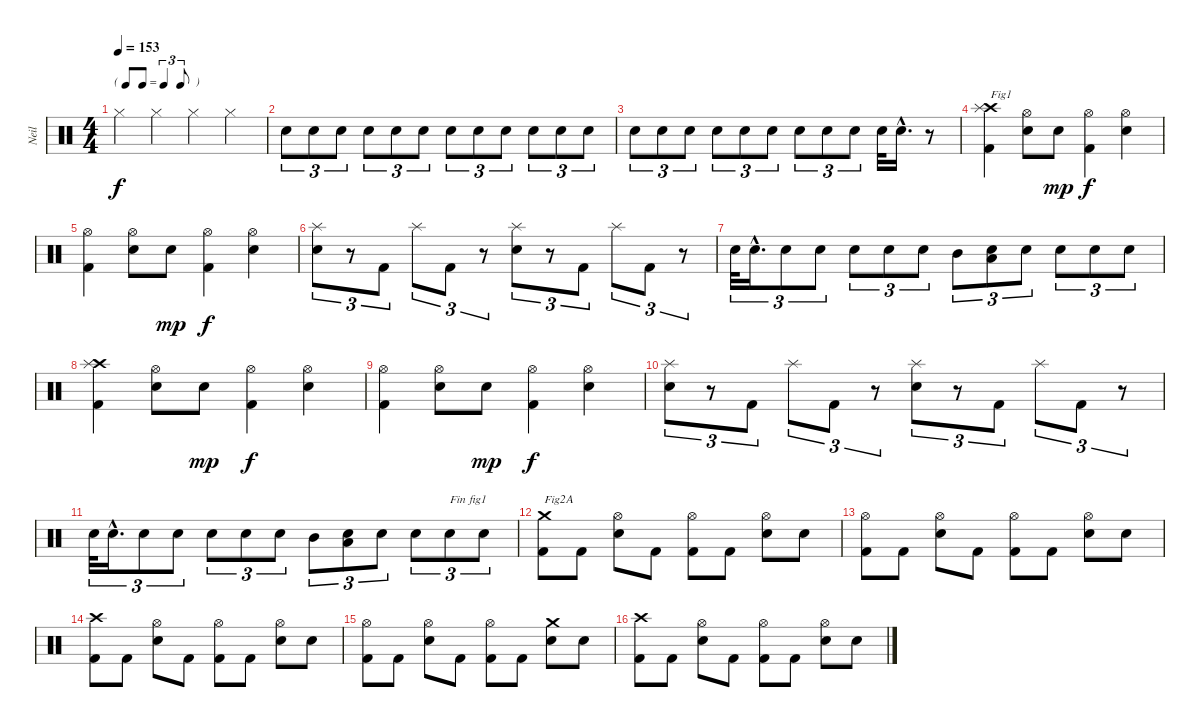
\track ("Neil" "Neil") {instrument percussion}
\staff {score}
\articulation defaults
\ts (4 4)
\tf triplet8th
\tempo 153
\clef neutral
\ks c "Hi-Hat (closed)".4{dy f} "Hi-Hat (closed)".4 "Hi-Hat (closed)".4 "Hi-Hat (closed)".4
|
"Electric Snare (hit)".8{tu (3 2)} "Electric Snare (hit)".8{tu (3 2)} "Electric Snare (hit)".8{tu (3 2)} "Electric Snare (hit)".8{tu (3 2)} "Electric Snare (hit)".8{tu (3 2)} "Electric Snare (hit)".8{tu (3 2)} "Electric Snare (hit)".8{tu (3 2)} "Electric Snare (hit)".8{tu (3 2)} "Electric Snare (hit)".8{tu (3 2)} "Electric Snare (hit)".8{tu (3 2)} "Electric Snare (hit)".8{tu (3 2)} "Electric Snare (hit)".8{tu (3 2)} |
"Electric Snare (hit)".8{tu (3 2)} "Electric Snare (hit)".8{tu (3 2)} "Electric Snare (hit)".8{tu (3 2)} "Electric Snare (hit)".8{tu (3 2)} "Electric Snare (hit)".8{tu (3 2)} "Electric Snare (hit)".8{tu (3 2)} "Electric Snare (hit)".8{tu (3 2)} "Electric Snare (hit)".8{tu (3 2)} "Electric Snare (hit)".8{tu (3 2)} "Electric Snare (hit)".32 "Electric Snare (hit)"{hac}.16{d} r.8 |
("Kick (hit) 2" "Crash high (hit)" "Splash (hit)").4{txt "Fig1"} ("Electric Snare (hit)" "Hi-Hat (open)").8 "Electric Snare (hit)".8{dy mp} ("Kick (hit) 2" "Hi-Hat (open)").4{dy f} ("Electric Snare (hit)" "Hi-Hat (open)").4 |
("Kick (hit) 2" "Hi-Hat (open)").4 ("Electric Snare (hit)" "Hi-Hat (open)").8 "Electric Snare (hit)".8{dy mp} ("Kick (hit) 2" "Hi-Hat (open)").4{dy f} ("Electric Snare (hit)" "Hi-Hat (open)").4 |
("Electric Snare (hit)" "Splash (hit)").8{tu (3 2)} r.8{tu (3 2)} "Kick (hit) 2".8{tu (3 2)} "Splash (hit)".8{tu (3 2)} "Kick (hit) 2".8{tu (3 2)} r.8{tu (3 2)} ("Electric Snare (hit)" "Splash (hit)").8{tu (3 2)} r.8{tu (3 2)} "Kick (hit) 2".8{tu (3 2)} "Splash (hit)".8{tu (3 2)} "Kick (hit) 2".8{tu (3 2)} r.8{tu (3 2)} |
"Electric Snare (hit)".32{tu (3 2)} "Electric Snare (hit)"{hac}.16{d tu (3 2)} "Electric Snare (hit)".8{tu (3 2)} "Electric Snare (hit)".8{tu (3 2)} "Electric Snare (hit)".8{tu (3 2)} "Electric Snare (hit)".8{tu (3 2)} "Electric Snare (hit)".8{tu (3 2)} "Mid Tom (hit)".8{tu (3 2)} ("Electric Snare (hit)" "Low Tom (hit)").8{tu (3 2)} "Electric Snare (hit)".8{tu (3 2)} "Electric Snare (hit)".8{tu (3 2)} "Electric Snare (hit)".8{tu (3 2)} "Electric Snare (hit)".8{tu (3 2)} |
("Kick (hit) 2" "Crash high (hit)" "Splash (hit)").4 ("Electric Snare (hit)" "Hi-Hat (open)").8 "Electric Snare (hit)".8{dy mp} ("Kick (hit) 2" "Hi-Hat (open)").4{dy f} ("Electric Snare (hit)" "Hi-Hat (open)").4 |
("Kick (hit) 2" "Hi-Hat (open)").4 ("Electric Snare (hit)" "Hi-Hat (open)").8 "Electric Snare (hit)".8{dy mp} ("Kick (hit) 2" "Hi-Hat (open)").4{dy f} ("Electric Snare (hit)" "Hi-Hat (open)").4 |
("Electric Snare (hit)" "Splash (hit)").8{tu (3 2)} r.8{tu (3 2)} "Kick (hit) 2".8{tu (3 2)} "Splash (hit)".8{tu (3 2)} "Kick (hit) 2".8{tu (3 2)} r.8{tu (3 2)} ("Electric Snare (hit)" "Splash (hit)").8{tu (3 2)} r.8{tu (3 2)} "Kick (hit) 2".8{tu (3 2)} "Splash (hit)".8{tu (3 2)} "Kick (hit) 2".8{tu (3 2)} r.8{tu (3 2)} |
"Electric Snare (hit)".32{tu (3 2)} "Electric Snare (hit)"{hac}.16{d tu (3 2)} "Electric Snare (hit)".8{tu (3 2)} "Electric Snare (hit)".8{tu (3 2)} "Electric Snare (hit)".8{tu (3 2)} "Electric Snare (hit)".8{tu (3 2)} "Electric Snare (hit)".8{tu (3 2)} "Mid Tom (hit)".8{tu (3 2)} ("Electric Snare (hit)" "Low Tom (hit)").8{tu (3 2)} "Electric Snare (hit)".8{tu (3 2)} "Electric Snare (hit)".8{tu (3 2)} "Electric Snare (hit)".8{tu (3 2) txt "Fin fig1"} "Electric Snare (hit)".8{tu (3 2)} |
("Kick (hit) 2" "Crash medium (hit)").8{txt "Fig2A"} "Kick (hit) 2".8 ("Electric Snare (hit)" "Hi-Hat (open)").8 "Kick (hit) 2".8 ("Kick (hit) 2" "Hi-Hat (open)").8 "Kick (hit) 2".8 ("Electric Snare (hit)" "Hi-Hat (open)").8 "Electric Snare (hit)".8 |
("Kick (hit) 2" "Hi-Hat (open)").8 "Kick (hit) 2".8 ("Electric Snare (hit)" "Hi-Hat (open)").8 "Kick (hit) 2".8 ("Kick (hit) 2" "Hi-Hat (open)").8 "Kick (hit) 2".8 ("Electric Snare (hit)" "Hi-Hat (open)").8 "Electric Snare (hit)".8 |
("Kick (hit) 2" "Crash high (hit)").8 "Kick (hit) 2".8 ("Electric Snare (hit)" "Hi-Hat (open)").8 "Kick (hit) 2".8 ("Kick (hit) 2" "Hi-Hat (open)").8 "Kick (hit) 2".8 ("Electric Snare (hit)" "Hi-Hat (open)").8 "Electric Snare (hit)".8 |
("Kick (hit) 2" "Hi-Hat (open)").8 "Kick (hit) 2".8 ("Electric Snare (hit)" "Hi-Hat (open)").8 "Kick (hit) 2".8 ("Kick (hit) 2" "Hi-Hat (open)").8 "Kick (hit) 2".8 ("Electric Snare (hit)" "Crash medium (hit)").8 "Electric Snare (hit)".8 |
("Kick (hit) 2" "Crash high (hit)").8 "Kick (hit) 2".8 ("Electric Snare (hit)" "Hi-Hat (open)").8 "Kick (hit) 2".8 ("Kick (hit) 2" "Hi-Hat (open)").8 "Kick (hit) 2".8 ("Electric Snare (hit)" "Hi-Hat (open)").8 "Electric Snare (hit)".8
